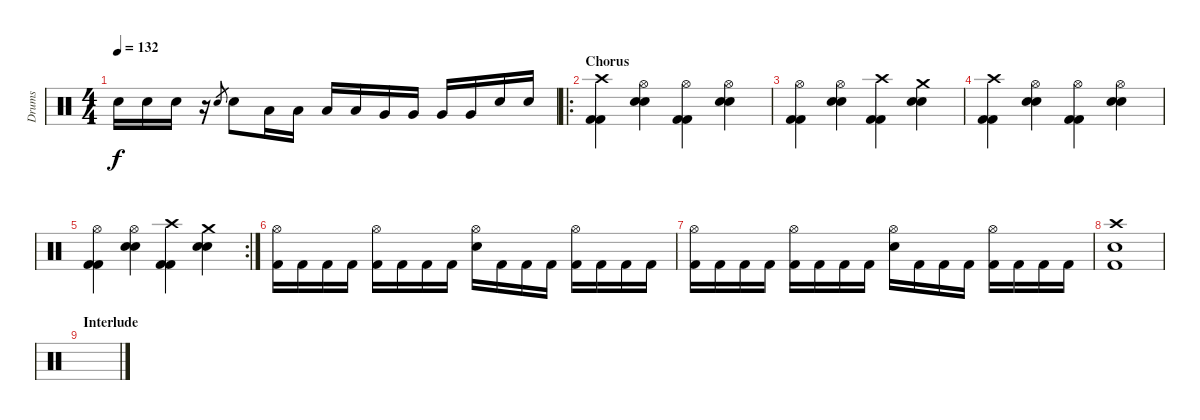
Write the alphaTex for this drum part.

\track ("Drums" "Drums") {instrument percussion}
\staff {score}
\articulation defaults
\ts (4 4)
\tempo 132
\clef neutral
\ks c "Electric Snare (hit)".16{dy f} "Electric Snare (hit)".16 "Electric Snare (hit)".16
r.16 "Electric Snare (hit)".8{gr} "Electric Snare (hit)".8 "Low Tom (hit)".16 "Low Tom (hit)".16 "Low Tom (hit)".16 "Low Tom (hit)".16 "Very Low Tom (hit)".16 "Very Low Tom (hit)".16 "Very Low Tom (hit)".16 "Very Low Tom (hit)".16 "Snare (hit) 2".16 "Snare (hit) 2".16 |
\ro
\section ("" "Chorus")
("Crash high (hit)" "Kick (hit) 2" "Kick (hit) 2").4 ("Hi-Hat (open)" "Snare (hit) 2" "Snare (hit) 2").4 ("Hi-Hat (open)" "Kick (hit) 2" "Kick (hit) 2").4 ("Hi-Hat (open)" "Snare (hit) 2" "Snare (hit) 2").4 |
("Hi-Hat (open)" "Kick (hit) 2" "Kick (hit) 2").4 ("Hi-Hat (open)" "Snare (hit) 2" "Snare (hit) 2").4 ("Crash high (hit)" "Kick (hit) 2" "Kick (hit) 2").4 ("Crash medium (hit)" "Snare (hit) 2" "Snare (hit) 2").4 |
("Crash high (hit)" "Kick (hit) 2" "Kick (hit) 2").4 ("Hi-Hat (open)" "Snare (hit) 2" "Snare (hit) 2").4 ("Hi-Hat (open)" "Kick (hit) 2" "Kick (hit) 2").4 ("Hi-Hat (open)" "Snare (hit) 2" "Snare (hit) 2").4 |
\rc 2
("Hi-Hat (open)" "Kick (hit) 2" "Kick (hit) 2").4 ("Hi-Hat (open)" "Snare (hit) 2" "Snare (hit) 2").4 ("Crash high (hit)" "Kick (hit) 2" "Kick (hit) 2").4 ("Crash medium (hit)" "Snare (hit) 2" "Snare (hit) 2").4 |
("Hi-Hat (open)" "Kick (hit) 2").16 "Kick (hit) 2".16 "Kick (hit) 2".16 "Kick (hit) 2".16 ("Hi-Hat (open)" "Kick (hit) 2").16 "Kick (hit) 2".16 "Kick (hit) 2".16 "Kick (hit) 2".16 ("Hi-Hat (open)" "Snare (hit) 2").16 "Kick (hit) 2".16 "Kick (hit) 2".16 "Kick (hit) 2".16 ("Hi-Hat (open)" "Kick (hit) 2").16 "Kick (hit) 2".16 "Kick (hit) 2".16 "Kick (hit) 2".16 |
("Hi-Hat (open)" "Kick (hit) 2").16 "Kick (hit) 2".16 "Kick (hit) 2".16 "Kick (hit) 2".16 ("Hi-Hat (open)" "Kick (hit) 2").16 "Kick (hit) 2".16 "Kick (hit) 2".16 "Kick (hit) 2".16 ("Hi-Hat (open)" "Snare (hit) 2").16 "Kick (hit) 2".16 "Kick (hit) 2".16 "Kick (hit) 2".16 ("Hi-Hat (open)" "Kick (hit) 2").16 "Kick (hit) 2".16 "Kick (hit) 2".16 "Kick (hit) 2".16 |
("Crash high (hit)" "Snare (hit) 2" "Kick (hit) 2").1 |
\section ("" "Interlude")
